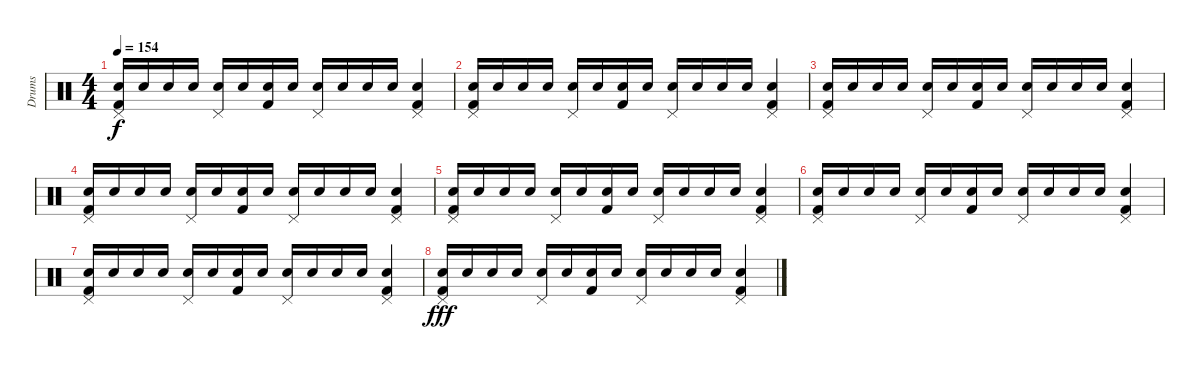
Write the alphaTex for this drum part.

\track ("Drums" "Drums") {instrument percussion}
\staff {score}
\articulation defaults
\ts (4 4)
\tempo 154
\clef neutral
\ks c
("Pedal Hi-Hat (hit)" "Electric Snare (hit)" "Kick (hit) 2").16{dy f} "Electric Snare (hit)".16 "Electric Snare (hit)".16 "Electric Snare (hit)".16 ("Pedal Hi-Hat (hit)" "Electric Snare (hit)").16 "Electric Snare (hit)".16 ("Kick (hit) 2" "Electric Snare (hit)").16 "Electric Snare (hit)".16 ("Pedal Hi-Hat (hit)" "Electric Snare (hit)").16 "Electric Snare (hit)".16 "Electric Snare (hit)".16 "Electric Snare (hit)".16 ("Kick (hit) 2" "Electric Snare (hit)" "Pedal Hi-Hat (hit)").4 |
("Pedal Hi-Hat (hit)" "Electric Snare (hit)" "Kick (hit) 2").16 "Electric Snare (hit)".16 "Electric Snare (hit)".16 "Electric Snare (hit)".16 ("Pedal Hi-Hat (hit)" "Electric Snare (hit)").16 "Electric Snare (hit)".16 ("Kick (hit) 2" "Electric Snare (hit)").16 "Electric Snare (hit)".16 ("Pedal Hi-Hat (hit)" "Electric Snare (hit)").16 "Electric Snare (hit)".16 "Electric Snare (hit)".16 "Electric Snare (hit)".16 ("Kick (hit) 2" "Electric Snare (hit)" "Pedal Hi-Hat (hit)").4 |
("Pedal Hi-Hat (hit)" "Electric Snare (hit)" "Kick (hit) 2").16 "Electric Snare (hit)".16 "Electric Snare (hit)".16 "Electric Snare (hit)".16 ("Pedal Hi-Hat (hit)" "Electric Snare (hit)").16 "Electric Snare (hit)".16 ("Kick (hit) 2" "Electric Snare (hit)").16 "Electric Snare (hit)".16 ("Pedal Hi-Hat (hit)" "Electric Snare (hit)").16 "Electric Snare (hit)".16 "Electric Snare (hit)".16 "Electric Snare (hit)".16 ("Kick (hit) 2" "Electric Snare (hit)" "Pedal Hi-Hat (hit)").4 |
("Pedal Hi-Hat (hit)" "Electric Snare (hit)" "Kick (hit) 2").16 "Electric Snare (hit)".16 "Electric Snare (hit)".16 "Electric Snare (hit)".16 ("Pedal Hi-Hat (hit)" "Electric Snare (hit)").16 "Electric Snare (hit)".16 ("Kick (hit) 2" "Electric Snare (hit)").16 "Electric Snare (hit)".16 ("Pedal Hi-Hat (hit)" "Electric Snare (hit)").16 "Electric Snare (hit)".16 "Electric Snare (hit)".16 "Electric Snare (hit)".16 ("Kick (hit) 2" "Electric Snare (hit)" "Pedal Hi-Hat (hit)").4 |
("Pedal Hi-Hat (hit)" "Electric Snare (hit)" "Kick (hit) 2").16 "Electric Snare (hit)".16 "Electric Snare (hit)".16 "Electric Snare (hit)".16 ("Pedal Hi-Hat (hit)" "Electric Snare (hit)").16 "Electric Snare (hit)".16 ("Kick (hit) 2" "Electric Snare (hit)").16 "Electric Snare (hit)".16 ("Pedal Hi-Hat (hit)" "Electric Snare (hit)").16 "Electric Snare (hit)".16 "Electric Snare (hit)".16 "Electric Snare (hit)".16 ("Kick (hit) 2" "Electric Snare (hit)" "Pedal Hi-Hat (hit)").4 |
("Pedal Hi-Hat (hit)" "Electric Snare (hit)" "Kick (hit) 2").16 "Electric Snare (hit)".16 "Electric Snare (hit)".16 "Electric Snare (hit)".16 ("Pedal Hi-Hat (hit)" "Electric Snare (hit)").16 "Electric Snare (hit)".16 ("Kick (hit) 2" "Electric Snare (hit)").16 "Electric Snare (hit)".16 ("Pedal Hi-Hat (hit)" "Electric Snare (hit)").16 "Electric Snare (hit)".16 "Electric Snare (hit)".16 "Electric Snare (hit)".16 ("Kick (hit) 2" "Electric Snare (hit)" "Pedal Hi-Hat (hit)").4 |
("Pedal Hi-Hat (hit)" "Electric Snare (hit)" "Kick (hit) 2").16 "Electric Snare (hit)".16 "Electric Snare (hit)".16 "Electric Snare (hit)".16 ("Pedal Hi-Hat (hit)" "Electric Snare (hit)").16 "Electric Snare (hit)".16 ("Kick (hit) 2" "Electric Snare (hit)").16 "Electric Snare (hit)".16 ("Pedal Hi-Hat (hit)" "Electric Snare (hit)").16 "Electric Snare (hit)".16 "Electric Snare (hit)".16 "Electric Snare (hit)".16 ("Kick (hit) 2" "Electric Snare (hit)" "Pedal Hi-Hat (hit)").4 |
("Electric Snare (hit)" "Pedal Hi-Hat (hit)" "Kick (hit) 2").16{dy fff} "Electric Snare (hit)".16 "Electric Snare (hit)".16 "Electric Snare (hit)".16 ("Electric Snare (hit)" "Pedal Hi-Hat (hit)").16 "Electric Snare (hit)".16 ("Electric Snare (hit)" "Kick (hit) 2").16 "Electric Snare (hit)".16 ("Electric Snare (hit)" "Pedal Hi-Hat (hit)").16 "Electric Snare (hit)".16 "Electric Snare (hit)".16 "Electric Snare (hit)".16 ("Electric Snare (hit)" "Kick (hit) 2" "Pedal Hi-Hat (hit)").4
